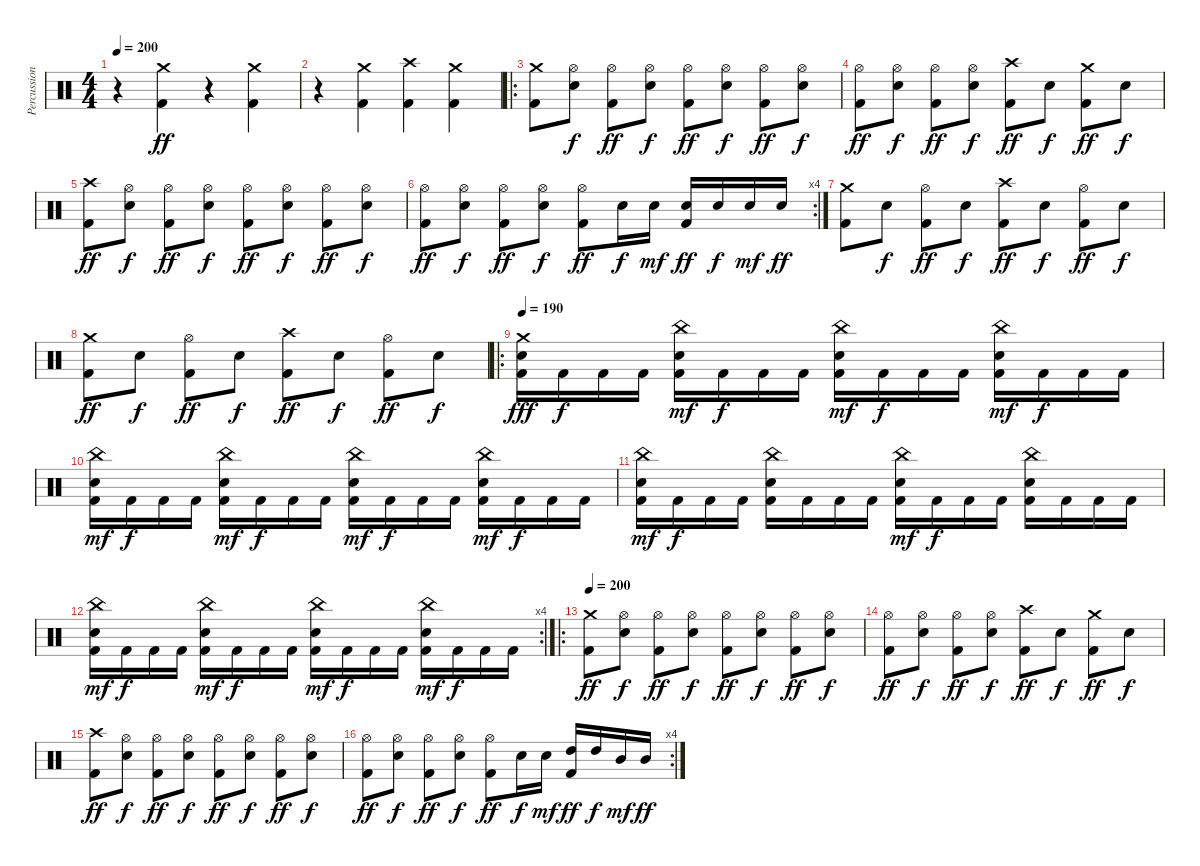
\track ("Percussions" "Percussion") {instrument percussion}
\staff {score}
\articulation defaults
\ts (4 4)
\tempo 200
\clef neutral
\ks c
r.4{dy ff} ("Crash medium (hit)" "Kick (hit) 2").4 r.4 ("Crash medium (hit)" "Kick (hit) 2").4 |
r.4 ("Crash medium (hit)" "Kick (hit) 2").4 ("Crash high (hit)" "Kick (hit) 2").4 ("Crash medium (hit)" "Kick (hit) 2").4 |
\ro
("Crash medium (hit)" "Kick (hit) 2").8 ("Hi-Hat (open)" "Electric Snare (hit)").8{dy f} ("Hi-Hat (open)" "Kick (hit) 2").8{dy ff} ("Hi-Hat (open)" "Electric Snare (hit)").8{dy f} ("Hi-Hat (open)" "Kick (hit) 2").8{dy ff} ("Hi-Hat (open)" "Electric Snare (hit)").8{dy f} ("Hi-Hat (open)" "Kick (hit) 2").8{dy ff} ("Hi-Hat (open)" "Electric Snare (hit)").8{dy f} |
("Hi-Hat (open)" "Kick (hit) 2").8{dy ff} ("Hi-Hat (open)" "Electric Snare (hit)").8{dy f} ("Hi-Hat (open)" "Kick (hit) 2").8{dy ff} ("Hi-Hat (open)" "Electric Snare (hit)").8{dy f} ("Crash high (hit)" "Kick (hit) 2").8{dy ff} "Electric Snare (hit)".8{dy f} ("Crash medium (hit)" "Kick (hit) 2").8{dy ff} "Electric Snare (hit)".8{dy f} |
("Crash high (hit)" "Kick (hit) 2").8{dy ff} ("Hi-Hat (open)" "Electric Snare (hit)").8{dy f} ("Hi-Hat (open)" "Kick (hit) 2").8{dy ff} ("Hi-Hat (open)" "Electric Snare (hit)").8{dy f} ("Hi-Hat (open)" "Kick (hit) 2").8{dy ff} ("Hi-Hat (open)" "Electric Snare (hit)").8{dy f} ("Hi-Hat (open)" "Kick (hit) 2").8{dy ff} ("Hi-Hat (open)" "Electric Snare (hit)").8{dy f} |
\rc 4
("Hi-Hat (open)" "Kick (hit) 2").8{dy ff} ("Hi-Hat (open)" "Electric Snare (hit)").8{dy f} ("Hi-Hat (open)" "Kick (hit) 2").8{dy ff} ("Hi-Hat (open)" "Electric Snare (hit)").8{dy f} ("Hi-Hat (open)" "Kick (hit) 2").8{dy ff} "Electric Snare (hit)".16{dy f} "Electric Snare (hit)".16{dy mf} ("Electric Snare (hit)" "Kick (hit) 2").16{dy ff} "Electric Snare (hit)".16{dy f} "Electric Snare (hit)".16{dy mf} "Electric Snare (hit)".16{dy ff} |
("Crash medium (hit)" "Kick (hit) 2").8 "Electric Snare (hit)".8{dy f} ("Hi-Hat (open)" "Kick (hit) 2").8{dy ff} "Electric Snare (hit)".8{dy f} ("Crash high (hit)" "Kick (hit) 2").8{dy ff} "Electric Snare (hit)".8{dy f} ("Hi-Hat (open)" "Kick (hit) 2").8{dy ff} "Electric Snare (hit)".8{dy f} |
("Crash medium (hit)" "Kick (hit) 2").8{dy ff} "Electric Snare (hit)".8{dy f} ("Hi-Hat (open)" "Kick (hit) 2").8{dy ff} "Electric Snare (hit)".8{dy f} ("Crash high (hit)" "Kick (hit) 2").8{dy ff} "Electric Snare (hit)".8{dy f} ("Hi-Hat (open)" "Kick (hit) 2").8{dy ff} "Electric Snare (hit)".8{dy f} |
\ro
\tempo 190
("Crash medium (hit)" "Electric Snare (hit)" "Kick (hit) 2").16{dy fff} "Kick (hit) 2".16{dy f} "Kick (hit) 2".16 "Kick (hit) 2".16 ("China (hit)" "Electric Snare (hit)" "Kick (hit) 2").16{dy mf} "Kick (hit) 2".16{dy f} "Kick (hit) 2".16 "Kick (hit) 2".16 ("China (hit)" "Electric Snare (hit)" "Kick (hit) 2").16{dy mf} "Kick (hit) 2".16{dy f} "Kick (hit) 2".16 "Kick (hit) 2".16 ("China (hit)" "Electric Snare (hit)" "Kick (hit) 2").16{dy mf} "Kick (hit) 2".16{dy f} "Kick (hit) 2".16 "Kick (hit) 2".16 |
("China (hit)" "Electric Snare (hit)" "Kick (hit) 2").16{dy mf} "Kick (hit) 2".16{dy f} "Kick (hit) 2".16 "Kick (hit) 2".16 ("China (hit)" "Electric Snare (hit)" "Kick (hit) 2").16{dy mf} "Kick (hit) 2".16{dy f} "Kick (hit) 2".16 "Kick (hit) 2".16 ("China (hit)" "Electric Snare (hit)" "Kick (hit) 2").16{dy mf} "Kick (hit) 2".16{dy f} "Kick (hit) 2".16 "Kick (hit) 2".16 ("China (hit)" "Electric Snare (hit)" "Kick (hit) 2").16{dy mf} "Kick (hit) 2".16{dy f} "Kick (hit) 2".16 "Kick (hit) 2".16 |
("China (hit)" "Electric Snare (hit)" "Kick (hit) 2").16{dy mf} "Kick (hit) 2".16{dy f} "Kick (hit) 2".16 "Kick (hit) 2".16 ("China (hit)" "Electric Snare (hit)" "Kick (hit) 2").16 "Kick (hit) 2".16 "Kick (hit) 2".16 "Kick (hit) 2".16 ("China (hit)" "Electric Snare (hit)" "Kick (hit) 2").16{dy mf} "Kick (hit) 2".16{dy f} "Kick (hit) 2".16 "Kick (hit) 2".16 ("China (hit)" "Electric Snare (hit)" "Kick (hit) 2").16 "Kick (hit) 2".16 "Kick (hit) 2".16 "Kick (hit) 2".16 |
\rc 4
("China (hit)" "Electric Snare (hit)" "Kick (hit) 2").16{dy mf} "Kick (hit) 2".16{dy f} "Kick (hit) 2".16 "Kick (hit) 2".16 ("China (hit)" "Electric Snare (hit)" "Kick (hit) 2").16{dy mf} "Kick (hit) 2".16{dy f} "Kick (hit) 2".16 "Kick (hit) 2".16 ("China (hit)" "Electric Snare (hit)" "Kick (hit) 2").16{dy mf} "Kick (hit) 2".16{dy f} "Kick (hit) 2".16 "Kick (hit) 2".16 ("China (hit)" "Electric Snare (hit)" "Kick (hit) 2").16{dy mf} "Kick (hit) 2".16{dy f} "Kick (hit) 2".16 "Kick (hit) 2".16 |
\ro
\tempo 200
("Crash medium (hit)" "Kick (hit) 2").8{dy ff} ("Hi-Hat (open)" "Electric Snare (hit)").8{dy f} ("Hi-Hat (open)" "Kick (hit) 2").8{dy ff} ("Hi-Hat (open)" "Electric Snare (hit)").8{dy f} ("Hi-Hat (open)" "Kick (hit) 2").8{dy ff} ("Hi-Hat (open)" "Electric Snare (hit)").8{dy f} ("Hi-Hat (open)" "Kick (hit) 2").8{dy ff} ("Hi-Hat (open)" "Electric Snare (hit)").8{dy f} |
("Hi-Hat (open)" "Kick (hit) 2").8{dy ff} ("Hi-Hat (open)" "Electric Snare (hit)").8{dy f} ("Hi-Hat (open)" "Kick (hit) 2").8{dy ff} ("Hi-Hat (open)" "Electric Snare (hit)").8{dy f} ("Crash high (hit)" "Kick (hit) 2").8{dy ff} "Electric Snare (hit)".8{dy f} ("Crash medium (hit)" "Kick (hit) 2").8{dy ff} "Electric Snare (hit)".8{dy f} |
("Crash high (hit)" "Kick (hit) 2").8{dy ff} ("Hi-Hat (open)" "Electric Snare (hit)").8{dy f} ("Hi-Hat (open)" "Kick (hit) 2").8{dy ff} ("Hi-Hat (open)" "Electric Snare (hit)").8{dy f} ("Hi-Hat (open)" "Kick (hit) 2").8{dy ff} ("Hi-Hat (open)" "Electric Snare (hit)").8{dy f} ("Hi-Hat (open)" "Kick (hit) 2").8{dy ff} ("Hi-Hat (open)" "Electric Snare (hit)").8{dy f} |
\rc 4
("Hi-Hat (open)" "Kick (hit) 2").8{dy ff} ("Hi-Hat (open)" "Electric Snare (hit)").8{dy f} ("Hi-Hat (open)" "Kick (hit) 2").8{dy ff} ("Hi-Hat (open)" "Electric Snare (hit)").8{dy f} ("Hi-Hat (open)" "Kick (hit) 2").8{dy ff} "Electric Snare (hit)".16{dy f} "Electric Snare (hit)".16{dy mf} ("High Tom (hit)" "Kick (hit) 2").16{dy ff} "High Tom (hit)".16{dy f} "Mid Tom (hit)".16{dy mf} "Mid Tom (hit)".16{dy ff}
